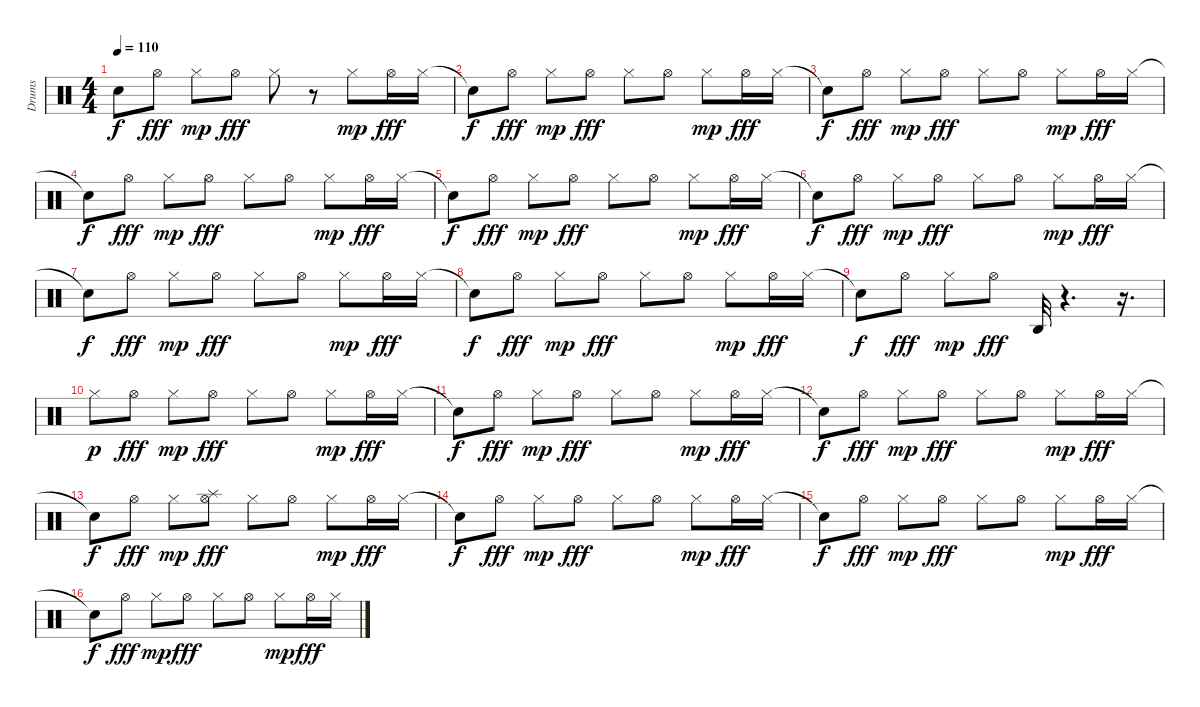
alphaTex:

\track ("Drums" "Drums") {instrument percussion}
\staff {score}
\articulation defaults
\ts (4 4)
\tempo 110
\clef neutral
\ks c "Snare (hit)"{t}.8{dy f} "Hi-Hat (open)".8{dy fff} "Hi-Hat (closed)".8{dy mp} "Hi-Hat (open)".8{dy fff} "Hi-Hat (closed)".8
r.8 "Hi-Hat (closed)".8{dy mp} "Hi-Hat (open)".16{dy fff} "Hi-Hat (closed)".16 |
"Snare (hit)"{t}.8{dy f} "Hi-Hat (open)".8{dy fff} "Hi-Hat (closed)".8{dy mp} "Hi-Hat (open)".8{dy fff} "Hi-Hat (closed)".8 "Hi-Hat (open)".8 "Hi-Hat (closed)".8{dy mp} "Hi-Hat (open)".16{dy fff} "Hi-Hat (closed)".16 |
"Snare (hit)"{t}.8{dy f} "Hi-Hat (open)".8{dy fff} "Hi-Hat (closed)".8{dy mp} "Hi-Hat (open)".8{dy fff} "Hi-Hat (closed)".8 "Hi-Hat (open)".8 "Hi-Hat (closed)".8{dy mp} "Hi-Hat (open)".16{dy fff} "Hi-Hat (closed)".16 |
"Snare (hit)"{t}.8{dy f} "Hi-Hat (open)".8{dy fff} "Hi-Hat (closed)".8{dy mp} "Hi-Hat (open)".8{dy fff} "Hi-Hat (closed)".8 "Hi-Hat (open)".8 "Hi-Hat (closed)".8{dy mp} "Hi-Hat (open)".16{dy fff} "Hi-Hat (closed)".16 |
"Snare (hit)"{t}.8{dy f} "Hi-Hat (open)".8{dy fff} "Hi-Hat (closed)".8{dy mp} "Hi-Hat (open)".8{dy fff} "Hi-Hat (closed)".8 "Hi-Hat (open)".8 "Hi-Hat (closed)".8{dy mp} "Hi-Hat (open)".16{dy fff} "Hi-Hat (closed)".16 |
"Snare (hit)"{t}.8{dy f} "Hi-Hat (open)".8{dy fff} "Hi-Hat (closed)".8{dy mp} "Hi-Hat (open)".8{dy fff} "Hi-Hat (closed)".8 "Hi-Hat (open)".8 "Hi-Hat (closed)".8{dy mp} "Hi-Hat (open)".16{dy fff} "Hi-Hat (closed)".16 |
"Snare (hit)"{t}.8{dy f} "Hi-Hat (open)".8{dy fff} "Hi-Hat (closed)".8{dy mp} "Hi-Hat (open)".8{dy fff} "Hi-Hat (closed)".8 "Hi-Hat (open)".8 "Hi-Hat (closed)".8{dy mp} "Hi-Hat (open)".16{dy fff} "Hi-Hat (closed)".16 |
"Snare (hit)"{t}.8{dy f} "Hi-Hat (open)".8{dy fff} "Hi-Hat (closed)".8{dy mp} "Hi-Hat (open)".8{dy fff} "Hi-Hat (closed)".8 "Hi-Hat (open)".8 "Hi-Hat (closed)".8{dy mp} "Hi-Hat (open)".16{dy fff} "Hi-Hat (closed)".16 |
"Snare (hit)"{t}.8{dy f} "Hi-Hat (open)".8{dy fff} "Hi-Hat (closed)".8{dy mp} "Hi-Hat (open)".8{dy fff} "Agogo high (hit)".32 r.4{d} r.16{d} |
"Hi-Hat (closed)".8{dy p} "Hi-Hat (open)".8{dy fff} "Hi-Hat (closed)".8{dy mp} "Hi-Hat (open)".8{dy fff} "Hi-Hat (closed)".8 "Hi-Hat (open)".8 "Hi-Hat (closed)".8{dy mp} "Hi-Hat (open)".16{dy fff} "Hi-Hat (closed)".16 |
"Snare (hit)"{t}.8{dy f} "Hi-Hat (open)".8{dy fff} "Hi-Hat (closed)".8{dy mp} "Hi-Hat (open)".8{dy fff} "Hi-Hat (closed)".8 "Hi-Hat (open)".8 "Hi-Hat (closed)".8{dy mp} "Hi-Hat (open)".16{dy fff} "Hi-Hat (closed)".16 |
"Snare (hit)"{t}.8{dy f} "Hi-Hat (open)".8{dy fff} "Hi-Hat (closed)".8{dy mp} "Hi-Hat (open)".8{dy fff} "Hi-Hat (closed)".8 "Hi-Hat (open)".8 "Hi-Hat (closed)".8{dy mp} "Hi-Hat (open)".16{dy fff} "Hi-Hat (closed)".16 |
"Snare (hit)"{t}.8{dy f} "Hi-Hat (open)".8{dy fff} "Hi-Hat (closed)".8{dy mp} ("Hi-Hat (open)" "Splash (hit)").8{dy fff} "Hi-Hat (closed)".8 "Hi-Hat (open)".8 "Hi-Hat (closed)".8{dy mp} "Hi-Hat (open)".16{dy fff} "Hi-Hat (closed)".16 |
"Snare (hit)"{t}.8{dy f} "Hi-Hat (open)".8{dy fff} "Hi-Hat (closed)".8{dy mp} "Hi-Hat (open)".8{dy fff} "Hi-Hat (closed)".8 "Hi-Hat (open)".8 "Hi-Hat (closed)".8{dy mp} "Hi-Hat (open)".16{dy fff} "Hi-Hat (closed)".16 |
"Snare (hit)"{t}.8{dy f} "Hi-Hat (open)".8{dy fff} "Hi-Hat (closed)".8{dy mp} "Hi-Hat (open)".8{dy fff} "Hi-Hat (closed)".8 "Hi-Hat (open)".8 "Hi-Hat (closed)".8{dy mp} "Hi-Hat (open)".16{dy fff} "Hi-Hat (closed)".16 |
"Snare (hit)"{t}.8{dy f} "Hi-Hat (open)".8{dy fff} "Hi-Hat (closed)".8{dy mp} "Hi-Hat (open)".8{dy fff} "Hi-Hat (closed)".8 "Hi-Hat (open)".8 "Hi-Hat (closed)".8{dy mp} "Hi-Hat (open)".16{dy fff} "Hi-Hat (closed)".16
